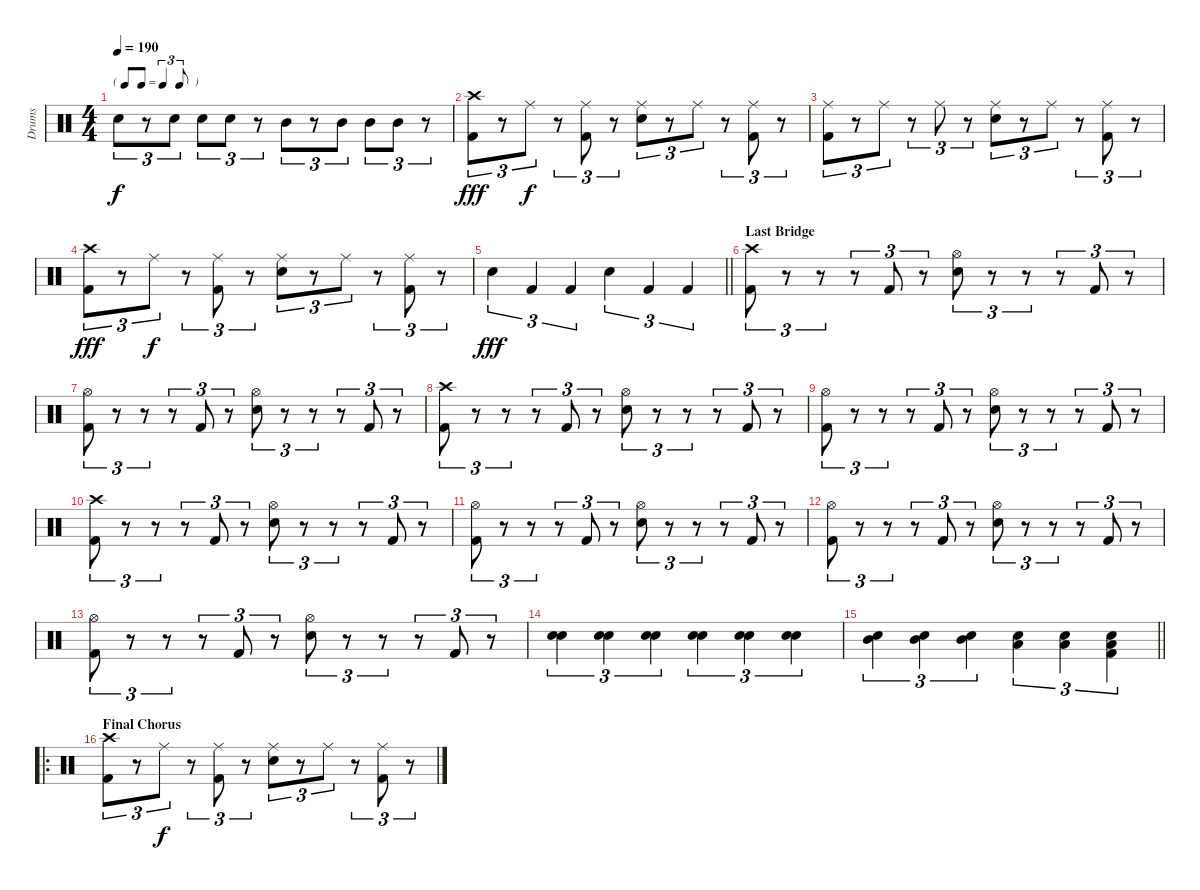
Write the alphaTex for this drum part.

\track ("Drums" "Drums") {instrument percussion}
\staff {score}
\articulation defaults
\ts (4 4)
\tf triplet8th
\tempo 190
\clef neutral
\ks c "Electric Snare (hit)".8{tu (3 2) dy f}
r.8{tu (3 2)} "Electric Snare (hit)".8{tu (3 2)} "Electric Snare (hit)".8{tu (3 2)} "Electric Snare (hit)".8{tu (3 2)} r.8{tu (3 2)} "Mid Tom (hit)".8{tu (3 2)} r.8{tu (3 2)} "Mid Tom (hit)".8{tu (3 2)} "Mid Tom (hit)".8{tu (3 2)} "Mid Tom (hit)".8{tu (3 2)} r.8{tu (3 2)} |
("Crash high (hit)" "Kick (hit) 2").8{tu (3 2) dy fff} r.8{tu (3 2)} "Ride (middle)".8{tu (3 2) dy f} r.8{tu (3 2)} ("Ride (middle)" "Kick (hit) 2").8{tu (3 2)} r.8{tu (3 2)} ("Ride (middle)" "Electric Snare (hit)").8{tu (3 2)} r.8{tu (3 2)} "Ride (middle)".8{tu (3 2)} r.8{tu (3 2)} ("Ride (middle)" "Kick (hit) 2").8{tu (3 2)} r.8{tu (3 2)} |
("Ride (middle)" "Kick (hit) 2").8{tu (3 2)} r.8{tu (3 2)} "Ride (middle)".8{tu (3 2)} r.8{tu (3 2)} "Ride (middle)".8{tu (3 2)} r.8{tu (3 2)} ("Ride (middle)" "Electric Snare (hit)").8{tu (3 2)} r.8{tu (3 2)} "Ride (middle)".8{tu (3 2)} r.8{tu (3 2)} ("Ride (middle)" "Kick (hit) 2").8{tu (3 2)} r.8{tu (3 2)} |
("Crash high (hit)" "Kick (hit) 2").8{tu (3 2) dy fff} r.8{tu (3 2)} "Ride (middle)".8{tu (3 2) dy f} r.8{tu (3 2)} ("Ride (middle)" "Kick (hit) 2").8{tu (3 2)} r.8{tu (3 2)} ("Ride (middle)" "Electric Snare (hit)").8{tu (3 2)} r.8{tu (3 2)} "Ride (middle)".8{tu (3 2)} r.8{tu (3 2)} ("Ride (middle)" "Kick (hit) 2").8{tu (3 2)} r.8{tu (3 2)} |
\barLineRight lightlight "Electric Snare (hit)".4{tu (3 2) dy fff} "Kick (hit) 2".4{tu (3 2)} "Kick (hit) 2".4{tu (3 2)} "Electric Snare (hit)".4{tu (3 2)} "Kick (hit) 2".4{tu (3 2)} "Kick (hit) 2".4{tu (3 2)}
|
\section ("" "Last Bridge")
("Crash high (hit)" "Kick (hit) 2").8{tu (3 2)} r.8{tu (3 2)} r.8{tu (3 2)} r.8{tu (3 2)} "Kick (hit) 2".8{tu (3 2)} r.8{tu (3 2)} ("Hi-Hat (open)" "Electric Snare (hit)").8{tu (3 2)} r.8{tu (3 2)} r.8{tu (3 2)} r.8{tu (3 2)} "Kick (hit) 2".8{tu (3 2)} r.8{tu (3 2)} |
("Hi-Hat (open)" "Kick (hit) 2").8{tu (3 2)} r.8{tu (3 2)} r.8{tu (3 2)} r.8{tu (3 2)} "Kick (hit) 2".8{tu (3 2)} r.8{tu (3 2)} ("Hi-Hat (open)" "Electric Snare (hit)").8{tu (3 2)} r.8{tu (3 2)} r.8{tu (3 2)} r.8{tu (3 2)} "Kick (hit) 2".8{tu (3 2)} r.8{tu (3 2)} |
("Crash high (hit)" "Kick (hit) 2").8{tu (3 2)} r.8{tu (3 2)} r.8{tu (3 2)} r.8{tu (3 2)} "Kick (hit) 2".8{tu (3 2)} r.8{tu (3 2)} ("Hi-Hat (open)" "Electric Snare (hit)").8{tu (3 2)} r.8{tu (3 2)} r.8{tu (3 2)} r.8{tu (3 2)} "Kick (hit) 2".8{tu (3 2)} r.8{tu (3 2)} |
("Hi-Hat (open)" "Kick (hit) 2").8{tu (3 2)} r.8{tu (3 2)} r.8{tu (3 2)} r.8{tu (3 2)} "Kick (hit) 2".8{tu (3 2)} r.8{tu (3 2)} ("Hi-Hat (open)" "Electric Snare (hit)").8{tu (3 2)} r.8{tu (3 2)} r.8{tu (3 2)} r.8{tu (3 2)} "Kick (hit) 2".8{tu (3 2)} r.8{tu (3 2)} |
("Crash high (hit)" "Kick (hit) 2").8{tu (3 2)} r.8{tu (3 2)} r.8{tu (3 2)} r.8{tu (3 2)} "Kick (hit) 2".8{tu (3 2)} r.8{tu (3 2)} ("Hi-Hat (open)" "Electric Snare (hit)").8{tu (3 2)} r.8{tu (3 2)} r.8{tu (3 2)} r.8{tu (3 2)} "Kick (hit) 2".8{tu (3 2)} r.8{tu (3 2)} |
("Hi-Hat (open)" "Kick (hit) 2").8{tu (3 2)} r.8{tu (3 2)} r.8{tu (3 2)} r.8{tu (3 2)} "Kick (hit) 2".8{tu (3 2)} r.8{tu (3 2)} ("Hi-Hat (open)" "Electric Snare (hit)").8{tu (3 2)} r.8{tu (3 2)} r.8{tu (3 2)} r.8{tu (3 2)} "Kick (hit) 2".8{tu (3 2)} r.8{tu (3 2)} |
("Hi-Hat (open)" "Kick (hit) 2").8{tu (3 2)} r.8{tu (3 2)} r.8{tu (3 2)} r.8{tu (3 2)} "Kick (hit) 2".8{tu (3 2)} r.8{tu (3 2)} ("Hi-Hat (open)" "Electric Snare (hit)").8{tu (3 2)} r.8{tu (3 2)} r.8{tu (3 2)} r.8{tu (3 2)} "Kick (hit) 2".8{tu (3 2)} r.8{tu (3 2)} |
("Hi-Hat (open)" "Kick (hit) 2").8{tu (3 2)} r.8{tu (3 2)} r.8{tu (3 2)} r.8{tu (3 2)} "Kick (hit) 2".8{tu (3 2)} r.8{tu (3 2)} ("Hi-Hat (open)" "Electric Snare (hit)").8{tu (3 2)} r.8{tu (3 2)} r.8{tu (3 2)} r.8{tu (3 2)} "Kick (hit) 2".8{tu (3 2)} r.8{tu (3 2)} |
("Electric Snare (hit)" "Electric Snare (hit)").4{tu (3 2)} ("Electric Snare (hit)" "Electric Snare (hit)").4{tu (3 2)} ("Electric Snare (hit)" "Electric Snare (hit)").4{tu (3 2)} ("Electric Snare (hit)" "Electric Snare (hit)").4{tu (3 2)} ("Electric Snare (hit)" "Electric Snare (hit)").4{tu (3 2)} ("Electric Snare (hit)" "Electric Snare (hit)").4{tu (3 2)} |
\barLineRight lightlight
("Mid Tom (hit)" "Electric Snare (hit)").4{tu (3 2)} ("Mid Tom (hit)" "Electric Snare (hit)").4{tu (3 2)} ("Mid Tom (hit)" "Electric Snare (hit)").4{tu (3 2)} ("Low Tom (hit)" "Electric Snare (hit)").4{tu (3 2)} ("Low Floor Tom (hit)" "Electric Snare (hit)").4{tu (3 2)} ("Low Floor Tom (hit)" "Electric Snare (hit)" "Kick (hit) 2").4{tu (3 2)} |
\ro
\section ("" "Final Chorus")
("Crash high (hit)" "Kick (hit) 2").8{tu (3 2)} r.8{tu (3 2)} "Ride (middle)".8{tu (3 2) dy f} r.8{tu (3 2)} ("Ride (middle)" "Kick (hit) 2").8{tu (3 2)} r.8{tu (3 2)} ("Ride (middle)" "Electric Snare (hit)").8{tu (3 2)} r.8{tu (3 2)} "Ride (middle)".8{tu (3 2)} r.8{tu (3 2)} ("Ride (middle)" "Kick (hit) 2").8{tu (3 2)} r.8{tu (3 2)}
